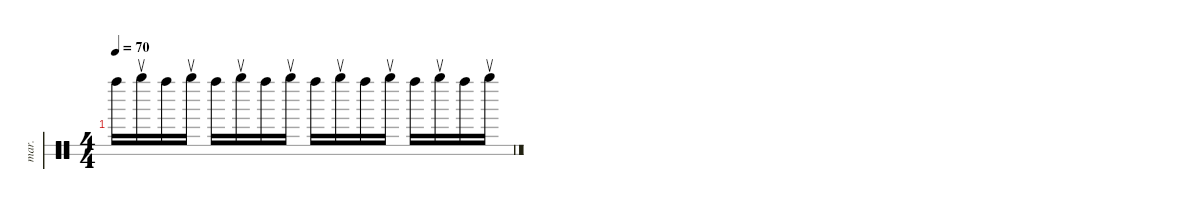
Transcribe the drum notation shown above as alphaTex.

\defaultSystemsLayout 4
\hideDynamics
\bracketExtendMode nobrackets
\otherSystemsTrackNameOrientation horizontal
\track ("Maracas" "mar.") {defaultSystemsLayout 4 multiBarRest instrument percussion}
\staff {score 2}
\articulation defaults
\ts (4 4)
\tempo 70
\clef neutral
\ks c "Right Maraca (hit)".16{dy ff} "Right Maraca (return)".16{dy f} "Right Maraca (hit)".16{dy ff} "Right Maraca (return)".16{dy f} "Right Maraca (hit)".16{dy ff} "Right Maraca (return)".16{dy f} "Right Maraca (hit)".16{dy ff} "Right Maraca (return)".16{dy f} "Right Maraca (hit)".16{dy ff} "Right Maraca (return)".16{dy f} "Right Maraca (hit)".16{dy ff} "Right Maraca (return)".16{dy f} "Right Maraca (hit)".16{dy ff} "Right Maraca (return)".16{dy f} "Right Maraca (hit)".16{dy ff} "Right Maraca (return)".16{dy f}
